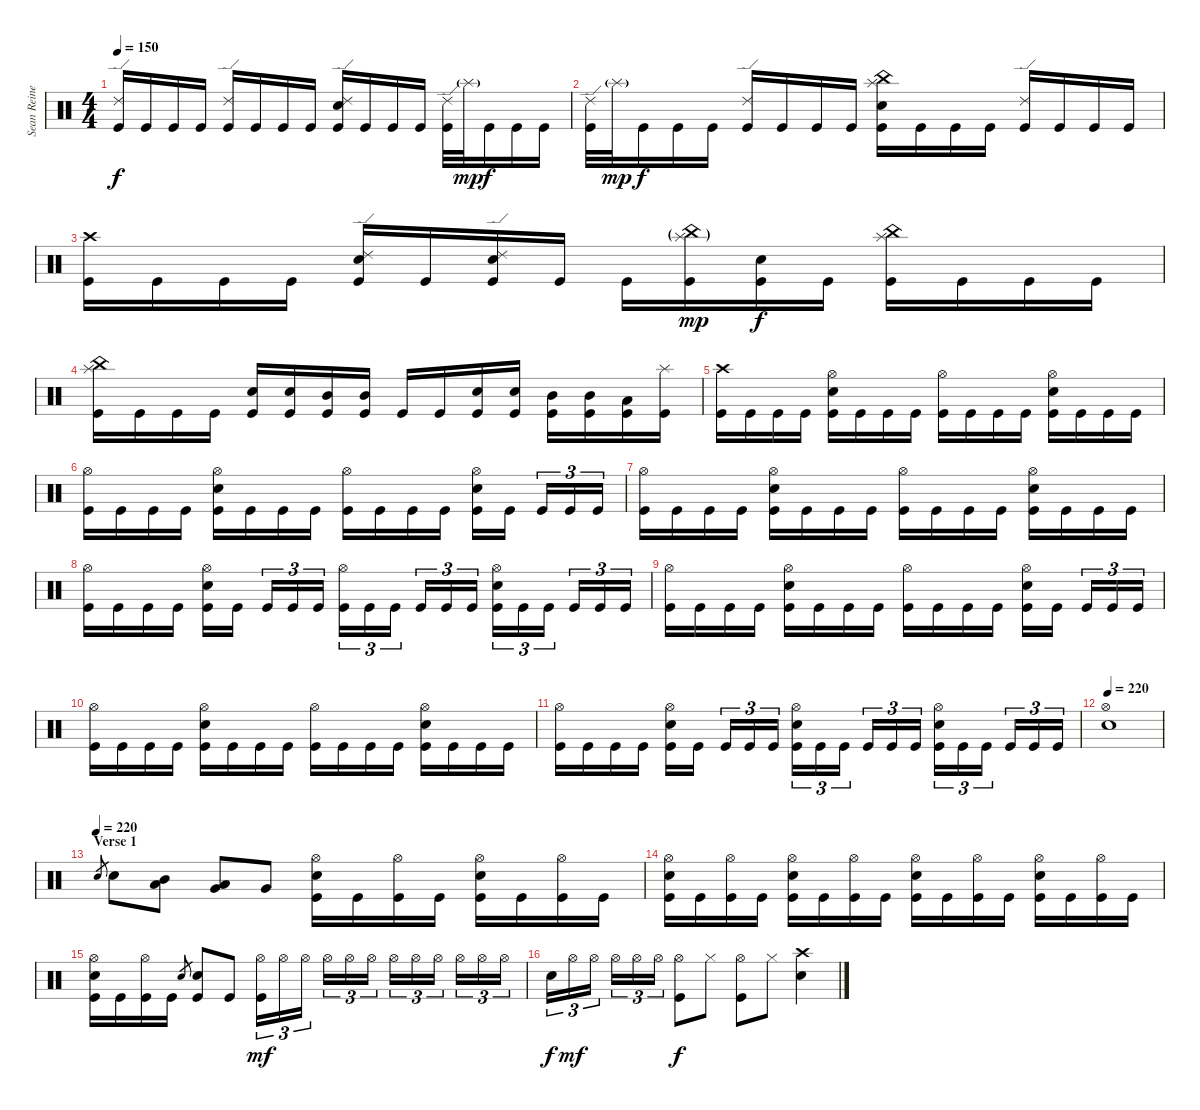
\track ("Sean Reinert " "Sean Reine") {instrument percussion}
\staff {score}
\articulation defaults
\ts (4 4)
\tempo 150
\clef neutral
\ks c
("Ride (edge) 2" "Kick (hit)").16{dy f} "Kick (hit)".16 "Kick (hit)".16 "Kick (hit)".16 ("Ride (edge) 2" "Kick (hit)").16 "Kick (hit)".16 "Kick (hit)".16 "Kick (hit)".16 ("Ride (edge) 2" "Electric Snare (hit)" "Kick (hit)").16 "Kick (hit)".16 "Kick (hit)".16 "Kick (hit)".16 ("Ride (edge) 2" "Kick (hit)").32 "Splash (hit)"{g}.32{dy mp} "Kick (hit)".16{dy f} "Kick (hit)".16 "Kick (hit)".16 |
("Ride (edge) 2" "Kick (hit)").32 "Splash (hit)"{g}.32{dy mp} "Kick (hit)".16{dy f} "Kick (hit)".16 "Kick (hit)".16 ("Ride (edge) 2" "Kick (hit)").16 "Kick (hit)".16 "Kick (hit)".16 "Kick (hit)".16 ("Splash (hit)" "China (hit)" "Electric Snare (hit)" "Kick (hit)").16 "Kick (hit)".16 "Kick (hit)".16 "Kick (hit)".16 ("Ride (edge) 2" "Kick (hit)").16 "Kick (hit)".16 "Kick (hit)".16 "Kick (hit)".16 |
("Crash high (hit)" "Kick (hit)").16 "Kick (hit)".16 "Kick (hit)".16 "Kick (hit)".16 ("Ride (edge) 2" "Electric Snare (hit)" "Kick (hit)").16 "Kick (hit)".16 ("Ride (edge) 2" "Electric Snare (hit)" "Kick (hit)").16 "Kick (hit)".16 "Kick (hit)".16 ("Splash (hit)"{g} "China (hit)"{g} "Kick (hit)").16{dy mp} ("Electric Snare (hit)" "Kick (hit)").16{dy f} "Kick (hit)".16 ("Splash (hit)" "China (hit)" "Kick (hit)").16 "Kick (hit)".16 "Kick (hit)".16 "Kick (hit)".16 |
("Splash (hit)" "China (hit)" "Kick (hit)").16 "Kick (hit)".16 "Kick (hit)".16 "Kick (hit)".16 ("Electric Snare (hit)" "Kick (hit)").16 ("Electric Snare (hit)" "Kick (hit)").16 ("Mid Tom (hit)" "Kick (hit)").16 ("Mid Tom (hit)" "Kick (hit)").16 "Kick (hit)".16 "Kick (hit)".16 ("Electric Snare (hit)" "Kick (hit)").16 ("Electric Snare (hit)" "Kick (hit)").16 ("Mid Tom (hit)" "Kick (hit)").16 ("Mid Tom (hit)" "Kick (hit)").16 ("Low Tom (hit)" "Kick (hit)").16 ("Splash (hit)" "Kick (hit)").16 |
("Crash high (hit)" "Kick (hit)").16 "Kick (hit)".16 "Kick (hit)".16 "Kick (hit)".16 ("Hi-Hat (open)" "Electric Snare (hit)" "Kick (hit)").16 "Kick (hit)".16 "Kick (hit)".16 "Kick (hit)".16 ("Hi-Hat (open)" "Kick (hit)").16 "Kick (hit)".16 "Kick (hit)".16 "Kick (hit)".16 ("Hi-Hat (open)" "Electric Snare (hit)" "Kick (hit)").16 "Kick (hit)".16 "Kick (hit)".16 "Kick (hit)".16 |
("Hi-Hat (open)" "Kick (hit)").16 "Kick (hit)".16 "Kick (hit)".16 "Kick (hit)".16 ("Hi-Hat (open)" "Electric Snare (hit)" "Kick (hit)").16 "Kick (hit)".16 "Kick (hit)".16 "Kick (hit)".16 ("Hi-Hat (open)" "Kick (hit)").16 "Kick (hit)".16 "Kick (hit)".16 "Kick (hit)".16 ("Hi-Hat (open)" "Electric Snare (hit)" "Kick (hit)").16 "Kick (hit)".16 "Kick (hit)".16{tu (3 2)} "Kick (hit)".16{tu (3 2)} "Kick (hit)".16{tu (3 2)} |
("Hi-Hat (open)" "Kick (hit)").16 "Kick (hit)".16 "Kick (hit)".16 "Kick (hit)".16 ("Hi-Hat (open)" "Electric Snare (hit)" "Kick (hit)").16 "Kick (hit)".16 "Kick (hit)".16 "Kick (hit)".16 ("Hi-Hat (open)" "Kick (hit)").16 "Kick (hit)".16 "Kick (hit)".16 "Kick (hit)".16 ("Hi-Hat (open)" "Electric Snare (hit)" "Kick (hit)").16 "Kick (hit)".16 "Kick (hit)".16 "Kick (hit)".16 |
("Hi-Hat (open)" "Kick (hit)").16 "Kick (hit)".16 "Kick (hit)".16 "Kick (hit)".16 ("Hi-Hat (open)" "Electric Snare (hit)" "Kick (hit)").16 "Kick (hit)".16 "Kick (hit)".16{tu (3 2)} "Kick (hit)".16{tu (3 2)} "Kick (hit)".16{tu (3 2)} ("Hi-Hat (open)" "Kick (hit)").16{tu (3 2)} "Kick (hit)".16{tu (3 2)} "Kick (hit)".16{tu (3 2)} "Kick (hit)".16{tu (3 2)} "Kick (hit)".16{tu (3 2)} "Kick (hit)".16{tu (3 2)} ("Hi-Hat (open)" "Electric Snare (hit)" "Kick (hit)").16{tu (3 2)} "Kick (hit)".16{tu (3 2)} "Kick (hit)".16{tu (3 2)} "Kick (hit)".16{tu (3 2)} "Kick (hit)".16{tu (3 2)} "Kick (hit)".16{tu (3 2)} |
("Hi-Hat (open)" "Kick (hit)").16 "Kick (hit)".16 "Kick (hit)".16 "Kick (hit)".16 ("Hi-Hat (open)" "Electric Snare (hit)" "Kick (hit)").16 "Kick (hit)".16 "Kick (hit)".16 "Kick (hit)".16 ("Hi-Hat (open)" "Kick (hit)").16 "Kick (hit)".16 "Kick (hit)".16 "Kick (hit)".16 ("Hi-Hat (open)" "Electric Snare (hit)" "Kick (hit)").16 "Kick (hit)".16 "Kick (hit)".16{tu (3 2)} "Kick (hit)".16{tu (3 2)} "Kick (hit)".16{tu (3 2)} |
("Hi-Hat (open)" "Kick (hit)").16 "Kick (hit)".16 "Kick (hit)".16 "Kick (hit)".16 ("Hi-Hat (open)" "Electric Snare (hit)" "Kick (hit)").16 "Kick (hit)".16 "Kick (hit)".16 "Kick (hit)".16 ("Hi-Hat (open)" "Kick (hit)").16 "Kick (hit)".16 "Kick (hit)".16 "Kick (hit)".16 ("Hi-Hat (open)" "Electric Snare (hit)" "Kick (hit)").16 "Kick (hit)".16 "Kick (hit)".16 "Kick (hit)".16 |
("Hi-Hat (open)" "Kick (hit)").16 "Kick (hit)".16 "Kick (hit)".16 "Kick (hit)".16 ("Hi-Hat (open)" "Electric Snare (hit)" "Kick (hit)").16 "Kick (hit)".16 "Kick (hit)".16{tu (3 2)} "Kick (hit)".16{tu (3 2)} "Kick (hit)".16{tu (3 2)} ("Hi-Hat (open)" "Electric Snare (hit)" "Kick (hit)").16{tu (3 2)} "Kick (hit)".16{tu (3 2)} "Kick (hit)".16{tu (3 2)} "Kick (hit)".16{tu (3 2)} "Kick (hit)".16{tu (3 2)} "Kick (hit)".16{tu (3 2)} ("Hi-Hat (open)" "Electric Snare (hit)" "Kick (hit)").16{tu (3 2)} "Kick (hit)".16{tu (3 2)} "Kick (hit)".16{tu (3 2)} "Kick (hit)".16{tu (3 2)} "Kick (hit)".16{tu (3 2)} "Kick (hit)".16{tu (3 2)} |
\tempo 220
("Hi-Hat (open)" "Electric Snare (hit)").1 |
\section ("" "Verse 1")
\tempo (220)
"Electric Snare (hit)".8{gr} "Electric Snare (hit)".8 ("Low Tom (hit)" "Mid Tom (hit)").8 ("Very Low Tom (hit)" "Low Tom (hit)").8 "Very Low Tom (hit)".8 ("Hi-Hat (open)" "Electric Snare (hit)" "Kick (hit)").16 "Kick (hit)".16 ("Hi-Hat (open)" "Kick (hit)").16 "Kick (hit)".16 ("Hi-Hat (open)" "Electric Snare (hit)" "Kick (hit)").16 "Kick (hit)".16 ("Hi-Hat (open)" "Kick (hit)").16 "Kick (hit)".16 |
("Hi-Hat (open)" "Electric Snare (hit)" "Kick (hit)").16 "Kick (hit)".16 ("Hi-Hat (open)" "Kick (hit)").16 "Kick (hit)".16 ("Hi-Hat (open)" "Electric Snare (hit)" "Kick (hit)").16 "Kick (hit)".16 ("Hi-Hat (open)" "Kick (hit)").16 "Kick (hit)".16 ("Hi-Hat (open)" "Electric Snare (hit)" "Kick (hit)").16 "Kick (hit)".16 ("Hi-Hat (open)" "Kick (hit)").16 "Kick (hit)".16 ("Hi-Hat (open)" "Electric Snare (hit)" "Kick (hit)").16 "Kick (hit)".16 ("Hi-Hat (open)" "Kick (hit)").16 "Kick (hit)".16 |
("Hi-Hat (open)" "Electric Snare (hit)" "Kick (hit)").16 "Kick (hit)".16 ("Hi-Hat (open)" "Kick (hit)").16 "Kick (hit)".16 "Electric Snare (hit)".8{gr} ("Electric Snare (hit)" "Kick (hit)").8 "Kick (hit)".8 ("Hi-Hat (open)" "Kick (hit)").16{tu (3 2) dy mf} "Hi-Hat (open)".16{tu (3 2)} "Hi-Hat (open)".16{tu (3 2)} "Hi-Hat (open)".16{tu (3 2)} "Hi-Hat (open)".16{tu (3 2)} "Hi-Hat (open)".16{tu (3 2)} "Hi-Hat (open)".16{tu (3 2)} "Hi-Hat (open)".16{tu (3 2)} "Hi-Hat (open)".16{tu (3 2)} "Hi-Hat (open)".16{tu (3 2)} "Hi-Hat (open)".16{tu (3 2)} "Hi-Hat (open)".16{tu (3 2)} |
"Electric Snare (hit)".16{tu (3 2) dy f} "Hi-Hat (open)".16{tu (3 2) dy mf} "Hi-Hat (open)".16{tu (3 2)} "Hi-Hat (open)".16{tu (3 2)} "Hi-Hat (open)".16{tu (3 2)} "Hi-Hat (open)".16{tu (3 2)} ("Hi-Hat (open)" "Kick (hit)").8{dy f} "Hi-Hat (closed)".8 ("Hi-Hat (open)" "Kick (hit)").8 "Hi-Hat (closed)".8 ("Crash high (hit)" "Electric Snare (hit)").4
